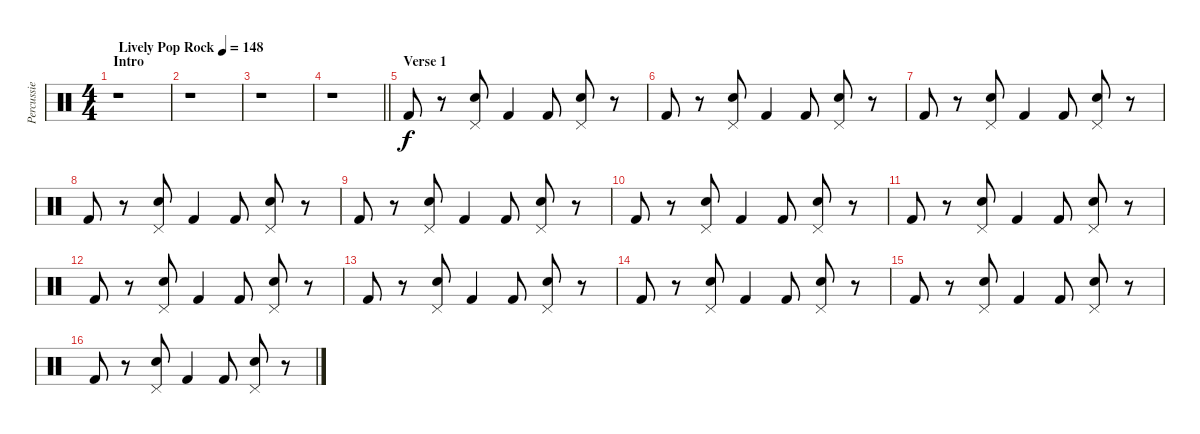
\track ("Percussie" "Percussie") {instrument percussion}
\staff {score}
\articulation defaults
\ts (4 4)
\section ("" "Intro")
\tempo (148 "Lively Pop Rock")
\clef neutral
\ks c
r.1{dy f} |
r.1 |
r.1 |
\barLineRight lightlight
r.1 |
\section ("" "Verse 1")
"Kick (hit) 2".8 r.8 ("Pedal Hi-Hat (hit)" "Electric Snare (hit)").8 "Kick (hit) 2".4 "Kick (hit) 2".8 ("Pedal Hi-Hat (hit)" "Electric Snare (hit)").8 r.8 |
"Kick (hit) 2".8 r.8 ("Pedal Hi-Hat (hit)" "Electric Snare (hit)").8 "Kick (hit) 2".4 "Kick (hit) 2".8 ("Pedal Hi-Hat (hit)" "Electric Snare (hit)").8 r.8 |
"Kick (hit) 2".8 r.8 ("Pedal Hi-Hat (hit)" "Electric Snare (hit)").8 "Kick (hit) 2".4 "Kick (hit) 2".8 ("Pedal Hi-Hat (hit)" "Electric Snare (hit)").8 r.8 |
"Kick (hit) 2".8 r.8 ("Pedal Hi-Hat (hit)" "Electric Snare (hit)").8 "Kick (hit) 2".4 "Kick (hit) 2".8 ("Pedal Hi-Hat (hit)" "Electric Snare (hit)").8 r.8 |
"Kick (hit) 2".8 r.8 ("Pedal Hi-Hat (hit)" "Electric Snare (hit)").8 "Kick (hit) 2".4 "Kick (hit) 2".8 ("Pedal Hi-Hat (hit)" "Electric Snare (hit)").8 r.8 |
"Kick (hit) 2".8 r.8 ("Pedal Hi-Hat (hit)" "Electric Snare (hit)").8 "Kick (hit) 2".4 "Kick (hit) 2".8 ("Pedal Hi-Hat (hit)" "Electric Snare (hit)").8 r.8 |
"Kick (hit) 2".8 r.8 ("Pedal Hi-Hat (hit)" "Electric Snare (hit)").8 "Kick (hit) 2".4 "Kick (hit) 2".8 ("Pedal Hi-Hat (hit)" "Electric Snare (hit)").8 r.8 |
"Kick (hit) 2".8 r.8 ("Pedal Hi-Hat (hit)" "Electric Snare (hit)").8 "Kick (hit) 2".4 "Kick (hit) 2".8 ("Pedal Hi-Hat (hit)" "Electric Snare (hit)").8 r.8 |
"Kick (hit) 2".8 r.8 ("Pedal Hi-Hat (hit)" "Electric Snare (hit)").8 "Kick (hit) 2".4 "Kick (hit) 2".8 ("Pedal Hi-Hat (hit)" "Electric Snare (hit)").8 r.8 |
"Kick (hit) 2".8 r.8 ("Pedal Hi-Hat (hit)" "Electric Snare (hit)").8 "Kick (hit) 2".4 "Kick (hit) 2".8 ("Pedal Hi-Hat (hit)" "Electric Snare (hit)").8 r.8 |
"Kick (hit) 2".8 r.8 ("Pedal Hi-Hat (hit)" "Electric Snare (hit)").8 "Kick (hit) 2".4 "Kick (hit) 2".8 ("Pedal Hi-Hat (hit)" "Electric Snare (hit)").8 r.8 |
"Kick (hit) 2".8 r.8 ("Pedal Hi-Hat (hit)" "Electric Snare (hit)").8 "Kick (hit) 2".4 "Kick (hit) 2".8 ("Pedal Hi-Hat (hit)" "Electric Snare (hit)").8 r.8
